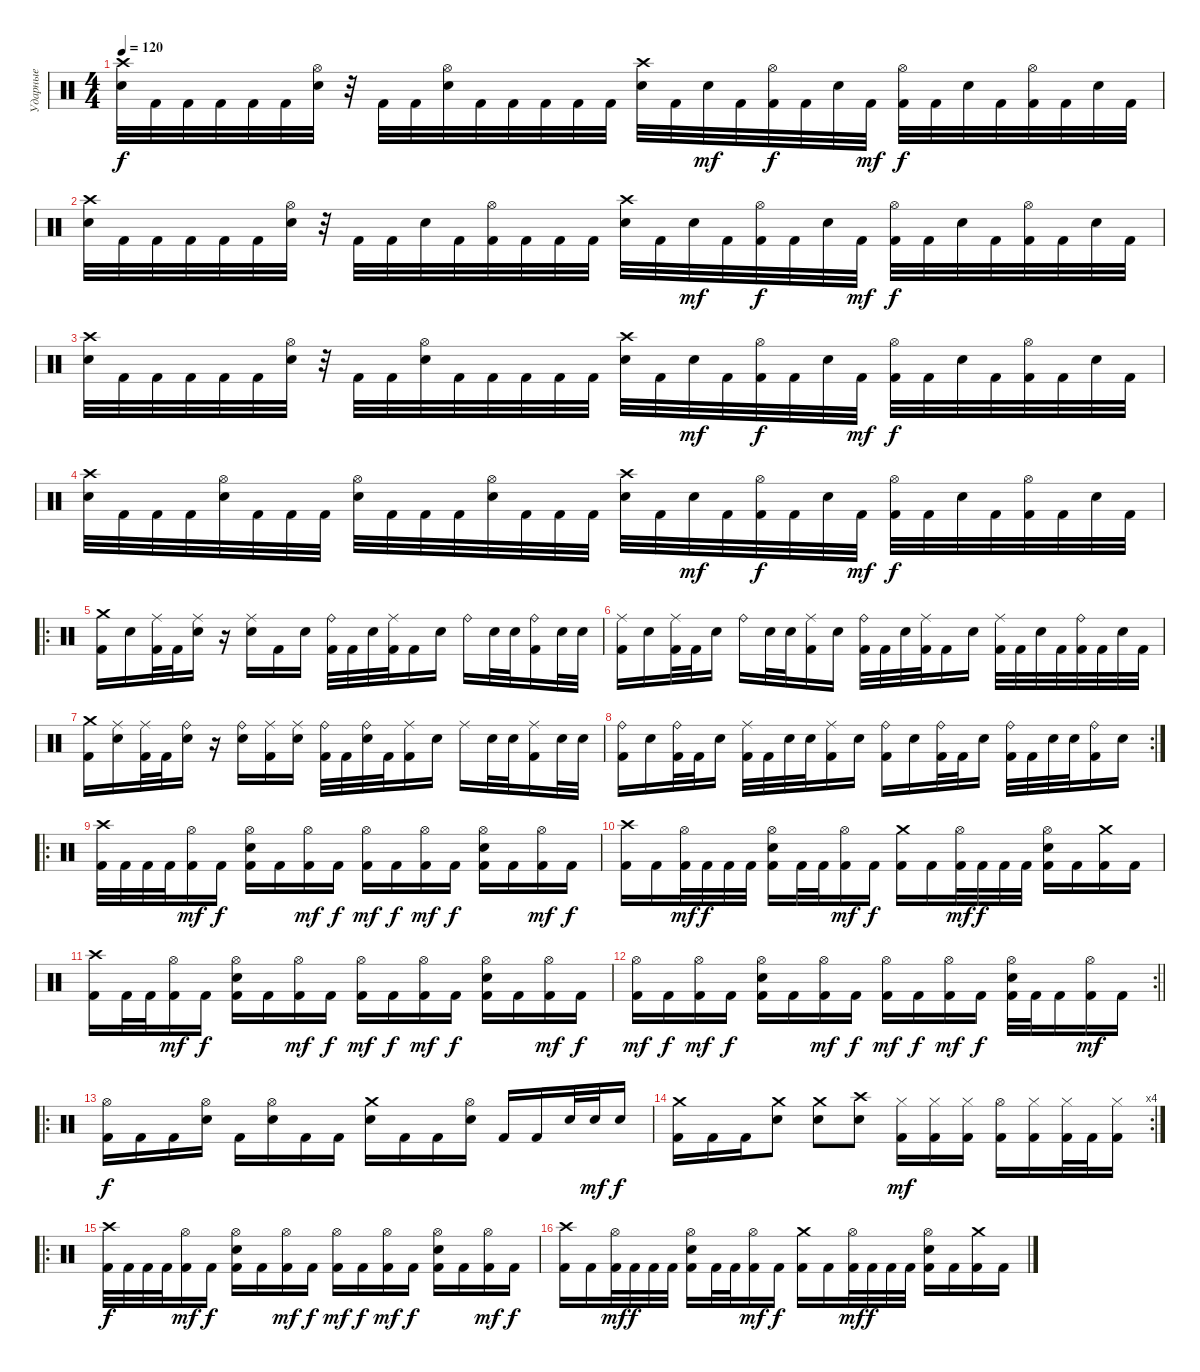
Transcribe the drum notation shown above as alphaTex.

\track ("Ударные" "Ударные") {instrument percussion}
\staff {score}
\articulation defaults
\ts (4 4)
\tempo 120
\clef neutral
\ks c
("Crash high (hit)" "Electric Snare (hit)").32{dy f} "Kick (hit) 2".32 "Kick (hit) 2".32 "Kick (hit) 2".32 "Kick (hit) 2".32 "Kick (hit) 2".32 ("Hi-Hat (open)" "Electric Snare (hit)").32 r.32 "Kick (hit) 2".32 "Kick (hit) 2".32 ("Hi-Hat (open)" "Electric Snare (hit)").32 "Kick (hit) 2".32 "Kick (hit) 2".32 "Kick (hit) 2".32 "Kick (hit) 2".32 "Kick (hit) 2".32 ("Crash high (hit)" "Electric Snare (hit)").32 "Kick (hit) 2".32 "Electric Snare (hit)".32{dy mf} "Kick (hit) 2".32 ("Hi-Hat (open)" "Kick (hit) 2").32{dy f} "Kick (hit) 2".32 "Electric Snare (hit)".32 "Kick (hit) 2".32{dy mf} ("Hi-Hat (open)" "Kick (hit) 2").32{dy f} "Kick (hit) 2".32 "Electric Snare (hit)".32 "Kick (hit) 2".32 ("Hi-Hat (open)" "Kick (hit) 2").32 "Kick (hit) 2".32 "Electric Snare (hit)".32 "Kick (hit) 2".32 |
("Crash high (hit)" "Electric Snare (hit)").32 "Kick (hit) 2".32 "Kick (hit) 2".32 "Kick (hit) 2".32 "Kick (hit) 2".32 "Kick (hit) 2".32 ("Hi-Hat (open)" "Electric Snare (hit)").32 r.32 "Kick (hit) 2".32 "Kick (hit) 2".32 "Electric Snare (hit)".32 "Kick (hit) 2".32 ("Hi-Hat (open)" "Kick (hit) 2").32 "Kick (hit) 2".32 "Kick (hit) 2".32 "Kick (hit) 2".32 ("Crash high (hit)" "Electric Snare (hit)").32 "Kick (hit) 2".32 "Electric Snare (hit)".32{dy mf} "Kick (hit) 2".32 ("Hi-Hat (open)" "Kick (hit) 2").32{dy f} "Kick (hit) 2".32 "Electric Snare (hit)".32 "Kick (hit) 2".32{dy mf} ("Hi-Hat (open)" "Kick (hit) 2").32{dy f} "Kick (hit) 2".32 "Electric Snare (hit)".32 "Kick (hit) 2".32 ("Hi-Hat (open)" "Kick (hit) 2").32 "Kick (hit) 2".32 "Electric Snare (hit)".32 "Kick (hit) 2".32 |
("Crash high (hit)" "Electric Snare (hit)").32 "Kick (hit) 2".32 "Kick (hit) 2".32 "Kick (hit) 2".32 "Kick (hit) 2".32 "Kick (hit) 2".32 ("Hi-Hat (open)" "Electric Snare (hit)").32 r.32 "Kick (hit) 2".32 "Kick (hit) 2".32 ("Hi-Hat (open)" "Electric Snare (hit)").32 "Kick (hit) 2".32 "Kick (hit) 2".32 "Kick (hit) 2".32 "Kick (hit) 2".32 "Kick (hit) 2".32 ("Crash high (hit)" "Electric Snare (hit)").32 "Kick (hit) 2".32 "Electric Snare (hit)".32{dy mf} "Kick (hit) 2".32 ("Hi-Hat (open)" "Kick (hit) 2").32{dy f} "Kick (hit) 2".32 "Electric Snare (hit)".32 "Kick (hit) 2".32{dy mf} ("Hi-Hat (open)" "Kick (hit) 2").32{dy f} "Kick (hit) 2".32 "Electric Snare (hit)".32 "Kick (hit) 2".32 ("Hi-Hat (open)" "Kick (hit) 2").32 "Kick (hit) 2".32 "Electric Snare (hit)".32 "Kick (hit) 2".32 |
("Crash high (hit)" "Electric Snare (hit)").32 "Kick (hit) 2".32 "Kick (hit) 2".32 "Kick (hit) 2".32 ("Hi-Hat (open)" "Electric Snare (hit)").32 "Kick (hit) 2".32 "Kick (hit) 2".32 "Kick (hit) 2".32 ("Hi-Hat (open)" "Electric Snare (hit)").32 "Kick (hit) 2".32 "Kick (hit) 2".32 "Kick (hit) 2".32 ("Hi-Hat (open)" "Electric Snare (hit)").32 "Kick (hit) 2".32 "Kick (hit) 2".32 "Kick (hit) 2".32 ("Crash high (hit)" "Electric Snare (hit)").32 "Kick (hit) 2".32 "Electric Snare (hit)".32{dy mf} "Kick (hit) 2".32 ("Hi-Hat (open)" "Kick (hit) 2").32{dy f} "Kick (hit) 2".32 "Electric Snare (hit)".32 "Kick (hit) 2".32{dy mf} ("Hi-Hat (open)" "Kick (hit) 2").32{dy f} "Kick (hit) 2".32 "Electric Snare (hit)".32 "Kick (hit) 2".32 ("Hi-Hat (open)" "Kick (hit) 2").32 "Kick (hit) 2".32 "Electric Snare (hit)".32 "Kick (hit) 2".32 |
\ro
("Crash medium (hit)" "Kick (hit) 2").16 "Electric Snare (hit)".16 ("Ride (middle)" "Kick (hit) 2").32 "Kick (hit) 2".32 ("Ride (middle)" "Electric Snare (hit)").16 r.16 ("Ride (middle)" "Electric Snare (hit)").16 "Kick (hit) 2".16 "Electric Snare (hit)".16 ("Ride (bell)" "Kick (hit) 2").32 "Kick (hit) 2".32 "Electric Snare (hit)".32 ("Ride (middle)" "Kick (hit) 2").32 "Kick (hit) 2".16 "Electric Snare (hit)".16 "Ride (bell)".16 "Electric Snare (hit)".32 "Electric Snare (hit)".32 ("Ride (bell)" "Kick (hit) 2").16 "Electric Snare (hit)".32 "Electric Snare (hit)".32 |
("Ride (middle)" "Kick (hit) 2").16 "Electric Snare (hit)".16 ("Ride (middle)" "Kick (hit) 2").32 "Kick (hit) 2".32 "Electric Snare (hit)".16 "Ride (bell)".16 "Electric Snare (hit)".32 "Electric Snare (hit)".32 ("Ride (middle)" "Kick (hit) 2").16 "Electric Snare (hit)".16 ("Ride (bell)" "Kick (hit) 2").32 "Kick (hit) 2".32 "Electric Snare (hit)".32 ("Ride (middle)" "Kick (hit) 2").32 "Kick (hit) 2".16 "Electric Snare (hit)".16 ("Ride (middle)" "Kick (hit) 2").32 "Kick (hit) 2".32 "Electric Snare (hit)".32 "Kick (hit) 2".32 ("Ride (bell)" "Kick (hit) 2").32 "Kick (hit) 2".32 "Electric Snare (hit)".32 "Kick (hit) 2".32 |
("Crash medium (hit)" "Kick (hit) 2").16 ("Ride (middle)" "Electric Snare (hit)").16 ("Ride (middle)" "Kick (hit) 2").32 "Kick (hit) 2".32 ("Ride (bell)" "Electric Snare (hit)").16 r.16 ("Ride (bell)" "Electric Snare (hit)").16 ("Ride (middle)" "Kick (hit) 2").16 ("Ride (middle)" "Electric Snare (hit)").16 ("Ride (bell)" "Kick (hit) 2").32 "Kick (hit) 2".32 ("Ride (bell)" "Electric Snare (hit)").32 "Kick (hit) 2".32 ("Ride (middle)" "Kick (hit) 2").16 "Electric Snare (hit)".16 "Ride (middle)".16 "Electric Snare (hit)".32 "Electric Snare (hit)".32 ("Ride (middle)" "Kick (hit) 2").16 "Electric Snare (hit)".32 "Electric Snare (hit)".32 |
\rc 2
("Ride (bell)" "Kick (hit) 2").16 "Electric Snare (hit)".16 ("Ride (bell)" "Kick (hit) 2").32 "Kick (hit) 2".32 "Electric Snare (hit)".16 ("Ride (middle)" "Kick (hit) 2").32 "Kick (hit) 2".32 "Electric Snare (hit)".32 "Electric Snare (hit)".32 ("Ride (middle)" "Kick (hit) 2").16 "Electric Snare (hit)".16 ("Ride (bell)" "Kick (hit) 2").16 "Electric Snare (hit)".16 ("Ride (bell)" "Kick (hit) 2").32 "Kick (hit) 2".32 "Electric Snare (hit)".16 ("Ride (bell)" "Kick (hit) 2").32 "Kick (hit) 2".32 "Electric Snare (hit)".32 "Electric Snare (hit)".32 ("Ride (bell)" "Kick (hit) 2").16 "Electric Snare (hit)".16 |
\ro
("Crash high (hit)" "Kick (hit) 2").32 "Kick (hit) 2".32 "Kick (hit) 2".32 "Kick (hit) 2".32 ("Hi-Hat (open)" "Kick (hit) 2").16{dy mf} "Kick (hit) 2".16{dy f} ("Hi-Hat (open)" "Electric Snare (hit)" "Kick (hit) 2").16 "Kick (hit) 2".16 ("Hi-Hat (open)" "Kick (hit) 2").16{dy mf} "Kick (hit) 2".16{dy f} ("Hi-Hat (open)" "Kick (hit) 2").16{dy mf} "Kick (hit) 2".16{dy f} ("Hi-Hat (open)" "Kick (hit) 2").16{dy mf} "Kick (hit) 2".16{dy f} ("Hi-Hat (open)" "Electric Snare (hit)" "Kick (hit) 2").16 "Kick (hit) 2".16 ("Hi-Hat (open)" "Kick (hit) 2").16{dy mf} "Kick (hit) 2".16{dy f} |
("Crash high (hit)" "Kick (hit) 2").16 "Kick (hit) 2".16 ("Hi-Hat (open)" "Kick (hit) 2").32{dy mf} "Kick (hit) 2".32{dy f} "Kick (hit) 2".32 "Kick (hit) 2".32 ("Hi-Hat (open)" "Electric Snare (hit)" "Kick (hit) 2").16 "Kick (hit) 2".32 "Kick (hit) 2".32 ("Hi-Hat (open)" "Kick (hit) 2").16{dy mf} "Kick (hit) 2".16{dy f} ("Crash medium (hit)" "Kick (hit) 2").16 "Kick (hit) 2".16 ("Hi-Hat (open)" "Kick (hit) 2").32{dy mf} "Kick (hit) 2".32{dy f} "Kick (hit) 2".32 "Kick (hit) 2".32 ("Hi-Hat (open)" "Electric Snare (hit)" "Kick (hit) 2").16 "Kick (hit) 2".16 ("Crash medium (hit)" "Kick (hit) 2").16 "Kick (hit) 2".16 |
("Crash high (hit)" "Kick (hit) 2").16 "Kick (hit) 2".32 "Kick (hit) 2".32 ("Hi-Hat (open)" "Kick (hit) 2").16{dy mf} "Kick (hit) 2".16{dy f} ("Hi-Hat (open)" "Electric Snare (hit)" "Kick (hit) 2").16 "Kick (hit) 2".16 ("Hi-Hat (open)" "Kick (hit) 2").16{dy mf} "Kick (hit) 2".16{dy f} ("Hi-Hat (open)" "Kick (hit) 2").16{dy mf} "Kick (hit) 2".16{dy f} ("Hi-Hat (open)" "Kick (hit) 2").16{dy mf} "Kick (hit) 2".16{dy f} ("Hi-Hat (open)" "Electric Snare (hit)" "Kick (hit) 2").16 "Kick (hit) 2".16 ("Hi-Hat (open)" "Kick (hit) 2").16{dy mf} "Kick (hit) 2".16{dy f} |
\rc 2
\barLineRight lightlight
("Hi-Hat (open)" "Kick (hit) 2").16{dy mf} "Kick (hit) 2".16{dy f} ("Hi-Hat (open)" "Kick (hit) 2").16{dy mf} "Kick (hit) 2".16{dy f} ("Hi-Hat (open)" "Electric Snare (hit)" "Kick (hit) 2").16 "Kick (hit) 2".16 ("Hi-Hat (open)" "Kick (hit) 2").16{dy mf} "Kick (hit) 2".16{dy f} ("Hi-Hat (open)" "Kick (hit) 2").16{dy mf} "Kick (hit) 2".16{dy f} ("Hi-Hat (open)" "Kick (hit) 2").16{dy mf} "Kick (hit) 2".16{dy f} ("Hi-Hat (open)" "Electric Snare (hit)" "Kick (hit) 2").32 "Kick (hit) 2".32 "Kick (hit) 2".16 ("Hi-Hat (open)" "Kick (hit) 2").16{dy mf} "Kick (hit) 2".16 |
\ro
("Hi-Hat (open)" "Kick (hit) 2").16{dy f} "Kick (hit) 2".16 "Kick (hit) 2".16 ("Hi-Hat (open)" "Electric Snare (hit)").16 "Kick (hit) 2".16 ("Hi-Hat (open)" "Electric Snare (hit)").16 "Kick (hit) 2".16 "Kick (hit) 2".16 ("Crash medium (hit)" "Electric Snare (hit)").16 "Kick (hit) 2".16 "Kick (hit) 2".16 ("Hi-Hat (open)" "Electric Snare (hit)").16 "Kick (hit) 2".16 "Kick (hit) 2".16 "Electric Snare (hit)".32 "Electric Snare (hit)".32{dy mf} "Electric Snare (hit)".16{dy f} |
\rc 4
("Crash medium (hit)" "Kick (hit) 2").16 "Kick (hit) 2".16 "Kick (hit) 2".16 ("Crash medium (hit)" "Electric Snare (hit)").8 ("Crash medium (hit)" "Electric Snare (hit)").8 ("Crash high (hit)" "Electric Snare (hit)").8 ("Hi-Hat (closed)" "Kick (hit) 2").16{dy mf} ("Hi-Hat (closed)" "Kick (hit) 2").16 ("Hi-Hat (closed)" "Kick (hit) 2").16 ("Hi-Hat (open)" "Kick (hit) 2").16 ("Hi-Hat (closed)" "Kick (hit) 2").16 ("Hi-Hat (closed)" "Kick (hit) 2").32 "Kick (hit) 2".32 ("Hi-Hat (closed)" "Kick (hit) 2").16 |
\ro
("Crash high (hit)" "Kick (hit) 2").32{dy f} "Kick (hit) 2".32 "Kick (hit) 2".32 "Kick (hit) 2".32 ("Hi-Hat (open)" "Kick (hit) 2").16{dy mf} "Kick (hit) 2".16{dy f} ("Hi-Hat (open)" "Electric Snare (hit)" "Kick (hit) 2").16 "Kick (hit) 2".16 ("Hi-Hat (open)" "Kick (hit) 2").16{dy mf} "Kick (hit) 2".16{dy f} ("Hi-Hat (open)" "Kick (hit) 2").16{dy mf} "Kick (hit) 2".16{dy f} ("Hi-Hat (open)" "Kick (hit) 2").16{dy mf} "Kick (hit) 2".16{dy f} ("Hi-Hat (open)" "Electric Snare (hit)" "Kick (hit) 2").16 "Kick (hit) 2".16 ("Hi-Hat (open)" "Kick (hit) 2").16{dy mf} "Kick (hit) 2".16{dy f} |
("Crash high (hit)" "Kick (hit) 2").16 "Kick (hit) 2".16 ("Hi-Hat (open)" "Kick (hit) 2").32{dy mf} "Kick (hit) 2".32{dy f} "Kick (hit) 2".32 "Kick (hit) 2".32 ("Hi-Hat (open)" "Electric Snare (hit)" "Kick (hit) 2").16 "Kick (hit) 2".32 "Kick (hit) 2".32 ("Hi-Hat (open)" "Kick (hit) 2").16{dy mf} "Kick (hit) 2".16{dy f} ("Crash medium (hit)" "Kick (hit) 2").16 "Kick (hit) 2".16 ("Hi-Hat (open)" "Kick (hit) 2").32{dy mf} "Kick (hit) 2".32{dy f} "Kick (hit) 2".32 "Kick (hit) 2".32 ("Hi-Hat (open)" "Electric Snare (hit)" "Kick (hit) 2").16 "Kick (hit) 2".16 ("Crash medium (hit)" "Kick (hit) 2").16 "Kick (hit) 2".16
